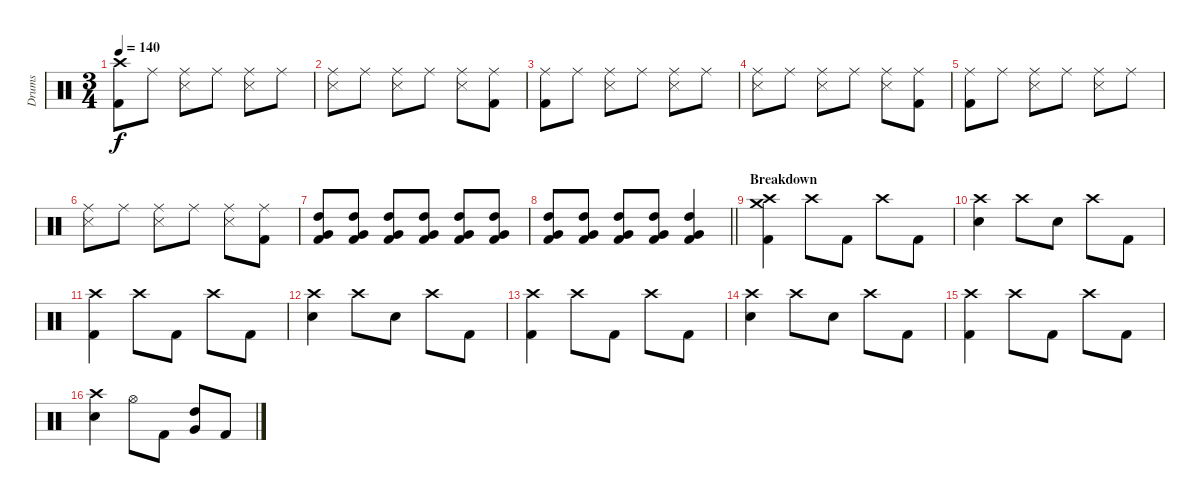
\track ("Drums" "Drums") {instrument percussion}
\staff {score}
\articulation defaults
\ts (3 4)
\tempo 140
\clef neutral
\ks c
("Kick (hit) 2" "Crash high (hit)").8{dy f} "Ride (middle)".8 ("Snare (side stick) 3" "Ride (middle)").8 "Ride (middle)".8 ("Snare (side stick) 3" "Ride (middle)").8 "Ride (middle)".8 |
("Snare (side stick) 3" "Ride (middle)").8 "Ride (middle)".8 ("Snare (side stick) 3" "Ride (middle)").8 "Ride (middle)".8 ("Snare (side stick) 3" "Ride (middle)").8 ("Kick (hit) 2" "Ride (middle)").8 |
("Kick (hit) 2" "Ride (middle)").8 "Ride (middle)".8 ("Snare (side stick) 3" "Ride (middle)").8 "Ride (middle)".8 ("Snare (side stick) 3" "Ride (middle)").8 "Ride (middle)".8 |
("Snare (side stick) 3" "Ride (middle)").8 "Ride (middle)".8 ("Snare (side stick) 3" "Ride (middle)").8 "Ride (middle)".8 ("Snare (side stick) 3" "Ride (middle)").8 ("Kick (hit) 2" "Ride (middle)").8 |
("Kick (hit) 2" "Ride (middle)").8 "Ride (middle)".8 ("Snare (side stick) 3" "Ride (middle)").8 "Ride (middle)".8 ("Snare (side stick) 3" "Ride (middle)").8 "Ride (middle)".8 |
("Snare (side stick) 3" "Ride (middle)").8 "Ride (middle)".8 ("Snare (side stick) 3" "Ride (middle)").8 "Ride (middle)".8 ("Snare (side stick) 3" "Ride (middle)").8 ("Kick (hit) 2" "Ride (middle)").8 |
("Kick (hit) 2" "Very Low Tom (hit)" "High Tom (hit)").8 ("Kick (hit) 2" "Very Low Tom (hit)" "High Tom (hit)").8 ("Kick (hit) 2" "Very Low Tom (hit)" "High Tom (hit)").8 ("Kick (hit) 2" "Very Low Tom (hit)" "High Tom (hit)").8 ("Kick (hit) 2" "Very Low Tom (hit)" "High Tom (hit)").8 ("Kick (hit) 2" "Very Low Tom (hit)" "High Tom (hit)").8 |
\barLineRight lightlight
("Kick (hit) 2" "Very Low Tom (hit)" "High Tom (hit)").8 ("Kick (hit) 2" "Very Low Tom (hit)" "High Tom (hit)").8 ("Kick (hit) 2" "Very Low Tom (hit)" "High Tom (hit)").8 ("Kick (hit) 2" "Very Low Tom (hit)" "High Tom (hit)").8 ("Kick (hit) 2" "Very Low Tom (hit)" "High Tom (hit)").4 |
\section ("" "Breakdown")
("Kick (hit) 2" "Crash high (hit)" "Crash medium (hit)").4 "Crash high (hit)".8 "Kick (hit) 2".8 "Crash high (hit)".8 "Kick (hit) 2".8 |
("Electric Snare (hit)" "Crash high (hit)").4 "Crash high (hit)".8 "Electric Snare (hit)".8 "Crash high (hit)".8 "Kick (hit) 2".8 |
("Kick (hit) 2" "Crash high (hit)").4 "Crash high (hit)".8 "Kick (hit) 2".8 "Crash high (hit)".8 "Kick (hit) 2".8 |
("Electric Snare (hit)" "Crash high (hit)").4 "Crash high (hit)".8 "Electric Snare (hit)".8 "Crash high (hit)".8 "Kick (hit) 2".8 |
("Kick (hit) 2" "Crash high (hit)").4 "Crash high (hit)".8 "Kick (hit) 2".8 "Crash high (hit)".8 "Kick (hit) 2".8 |
("Electric Snare (hit)" "Crash high (hit)").4 "Crash high (hit)".8 "Electric Snare (hit)".8 "Crash high (hit)".8 "Kick (hit) 2".8 |
("Kick (hit) 2" "Crash high (hit)").4 "Crash high (hit)".8 "Kick (hit) 2".8 "Crash high (hit)".8 "Kick (hit) 2".8 |
("Electric Snare (hit)" "Crash high (hit)").4 "Hi-Hat (open)".8 "Kick (hit) 2".8 ("Very Low Tom (hit)" "High Tom (hit)").8 "Kick (hit) 2".8
